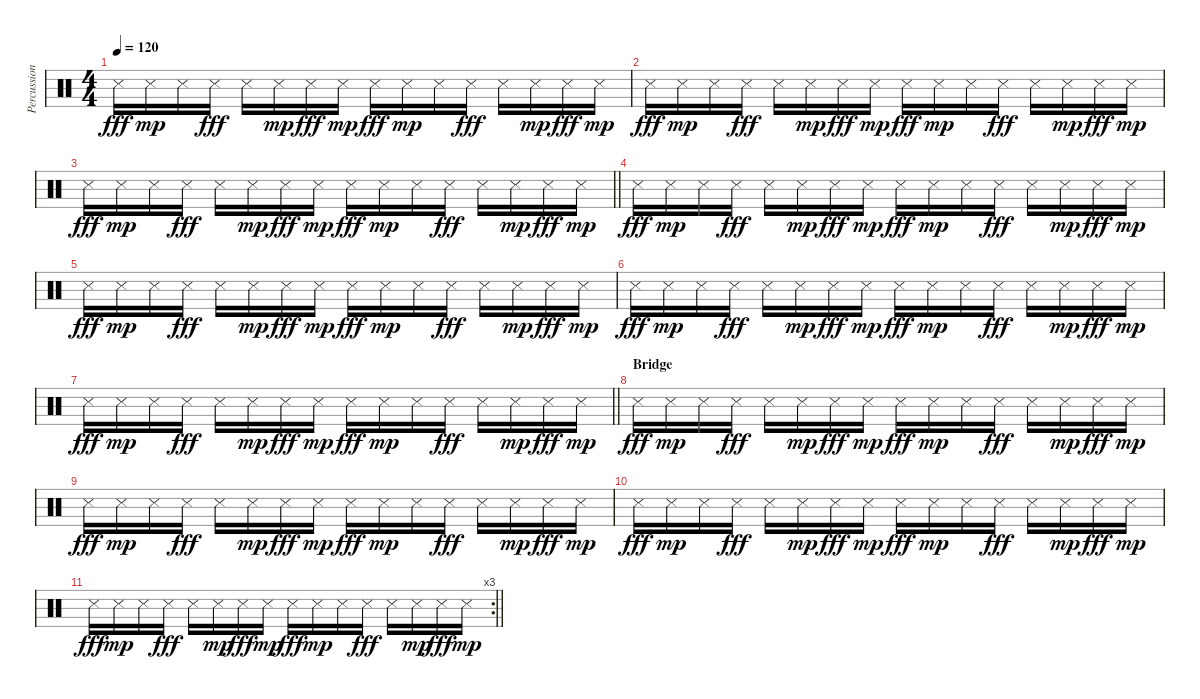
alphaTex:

\track ("Percussions" "Percussion") {instrument percussion}
\staff {score}
\articulation defaults
\ts (4 4)
\tempo 120
\clef neutral
\ks c "Snare (side stick) 3".16{dy fff} "Snare (side stick) 3".16{dy mp} "Snare (side stick) 3".16 "Snare (side stick) 3".16{dy fff} "Snare (side stick) 3".16 "Snare (side stick) 3".16{dy mp} "Snare (side stick) 3".16{dy fff} "Snare (side stick) 3".16{dy mp} "Snare (side stick) 3".16{dy fff} "Snare (side stick) 3".16{dy mp} "Snare (side stick) 3".16 "Snare (side stick) 3".16{dy fff} "Snare (side stick) 3".16 "Snare (side stick) 3".16{dy mp} "Snare (side stick) 3".16{dy fff} "Snare (side stick) 3".16{dy mp}
|
"Snare (side stick) 3".16{dy fff} "Snare (side stick) 3".16{dy mp} "Snare (side stick) 3".16 "Snare (side stick) 3".16{dy fff} "Snare (side stick) 3".16 "Snare (side stick) 3".16{dy mp} "Snare (side stick) 3".16{dy fff} "Snare (side stick) 3".16{dy mp} "Snare (side stick) 3".16{dy fff} "Snare (side stick) 3".16{dy mp} "Snare (side stick) 3".16 "Snare (side stick) 3".16{dy fff} "Snare (side stick) 3".16 "Snare (side stick) 3".16{dy mp} "Snare (side stick) 3".16{dy fff} "Snare (side stick) 3".16{dy mp} |
\barLineRight lightlight "Snare (side stick) 3".16{dy fff} "Snare (side stick) 3".16{dy mp} "Snare (side stick) 3".16 "Snare (side stick) 3".16{dy fff} "Snare (side stick) 3".16 "Snare (side stick) 3".16{dy mp} "Snare (side stick) 3".16{dy fff} "Snare (side stick) 3".16{dy mp} "Snare (side stick) 3".16{dy fff} "Snare (side stick) 3".16{dy mp} "Snare (side stick) 3".16 "Snare (side stick) 3".16{dy fff} "Snare (side stick) 3".16 "Snare (side stick) 3".16{dy mp} "Snare (side stick) 3".16{dy fff} "Snare (side stick) 3".16{dy mp}
|
"Snare (side stick) 3".16{dy fff} "Snare (side stick) 3".16{dy mp} "Snare (side stick) 3".16 "Snare (side stick) 3".16{dy fff} "Snare (side stick) 3".16 "Snare (side stick) 3".16{dy mp} "Snare (side stick) 3".16{dy fff} "Snare (side stick) 3".16{dy mp} "Snare (side stick) 3".16{dy fff} "Snare (side stick) 3".16{dy mp} "Snare (side stick) 3".16 "Snare (side stick) 3".16{dy fff} "Snare (side stick) 3".16 "Snare (side stick) 3".16{dy mp} "Snare (side stick) 3".16{dy fff} "Snare (side stick) 3".16{dy mp} |
"Snare (side stick) 3".16{dy fff} "Snare (side stick) 3".16{dy mp} "Snare (side stick) 3".16 "Snare (side stick) 3".16{dy fff} "Snare (side stick) 3".16 "Snare (side stick) 3".16{dy mp} "Snare (side stick) 3".16{dy fff} "Snare (side stick) 3".16{dy mp} "Snare (side stick) 3".16{dy fff} "Snare (side stick) 3".16{dy mp} "Snare (side stick) 3".16 "Snare (side stick) 3".16{dy fff} "Snare (side stick) 3".16 "Snare (side stick) 3".16{dy mp} "Snare (side stick) 3".16{dy fff} "Snare (side stick) 3".16{dy mp} |
"Snare (side stick) 3".16{dy fff} "Snare (side stick) 3".16{dy mp} "Snare (side stick) 3".16 "Snare (side stick) 3".16{dy fff} "Snare (side stick) 3".16 "Snare (side stick) 3".16{dy mp} "Snare (side stick) 3".16{dy fff} "Snare (side stick) 3".16{dy mp} "Snare (side stick) 3".16{dy fff} "Snare (side stick) 3".16{dy mp} "Snare (side stick) 3".16 "Snare (side stick) 3".16{dy fff} "Snare (side stick) 3".16 "Snare (side stick) 3".16{dy mp} "Snare (side stick) 3".16{dy fff} "Snare (side stick) 3".16{dy mp} |
\barLineRight lightlight "Snare (side stick) 3".16{dy fff} "Snare (side stick) 3".16{dy mp} "Snare (side stick) 3".16 "Snare (side stick) 3".16{dy fff} "Snare (side stick) 3".16 "Snare (side stick) 3".16{dy mp} "Snare (side stick) 3".16{dy fff} "Snare (side stick) 3".16{dy mp} "Snare (side stick) 3".16{dy fff} "Snare (side stick) 3".16{dy mp} "Snare (side stick) 3".16 "Snare (side stick) 3".16{dy fff} "Snare (side stick) 3".16 "Snare (side stick) 3".16{dy mp} "Snare (side stick) 3".16{dy fff} "Snare (side stick) 3".16{dy mp}
|
\section ("" "Bridge")
"Snare (side stick) 3".16{dy fff} "Snare (side stick) 3".16{dy mp} "Snare (side stick) 3".16 "Snare (side stick) 3".16{dy fff} "Snare (side stick) 3".16 "Snare (side stick) 3".16{dy mp} "Snare (side stick) 3".16{dy fff} "Snare (side stick) 3".16{dy mp} "Snare (side stick) 3".16{dy fff} "Snare (side stick) 3".16{dy mp} "Snare (side stick) 3".16 "Snare (side stick) 3".16{dy fff} "Snare (side stick) 3".16 "Snare (side stick) 3".16{dy mp} "Snare (side stick) 3".16{dy fff} "Snare (side stick) 3".16{dy mp} |
"Snare (side stick) 3".16{dy fff} "Snare (side stick) 3".16{dy mp} "Snare (side stick) 3".16 "Snare (side stick) 3".16{dy fff} "Snare (side stick) 3".16 "Snare (side stick) 3".16{dy mp} "Snare (side stick) 3".16{dy fff} "Snare (side stick) 3".16{dy mp} "Snare (side stick) 3".16{dy fff} "Snare (side stick) 3".16{dy mp} "Snare (side stick) 3".16 "Snare (side stick) 3".16{dy fff} "Snare (side stick) 3".16 "Snare (side stick) 3".16{dy mp} "Snare (side stick) 3".16{dy fff} "Snare (side stick) 3".16{dy mp} |
"Snare (side stick) 3".16{dy fff} "Snare (side stick) 3".16{dy mp} "Snare (side stick) 3".16 "Snare (side stick) 3".16{dy fff} "Snare (side stick) 3".16 "Snare (side stick) 3".16{dy mp} "Snare (side stick) 3".16{dy fff} "Snare (side stick) 3".16{dy mp} "Snare (side stick) 3".16{dy fff} "Snare (side stick) 3".16{dy mp} "Snare (side stick) 3".16 "Snare (side stick) 3".16{dy fff} "Snare (side stick) 3".16 "Snare (side stick) 3".16{dy mp} "Snare (side stick) 3".16{dy fff} "Snare (side stick) 3".16{dy mp} |
\rc 3
\barLineRight lightlight "Snare (side stick) 3".16{dy fff} "Snare (side stick) 3".16{dy mp} "Snare (side stick) 3".16 "Snare (side stick) 3".16{dy fff} "Snare (side stick) 3".16 "Snare (side stick) 3".16{dy mp} "Snare (side stick) 3".16{dy fff} "Snare (side stick) 3".16{dy mp} "Snare (side stick) 3".16{dy fff} "Snare (side stick) 3".16{dy mp} "Snare (side stick) 3".16 "Snare (side stick) 3".16{dy fff} "Snare (side stick) 3".16 "Snare (side stick) 3".16{dy mp} "Snare (side stick) 3".16{dy fff} "Snare (side stick) 3".16{dy mp}
